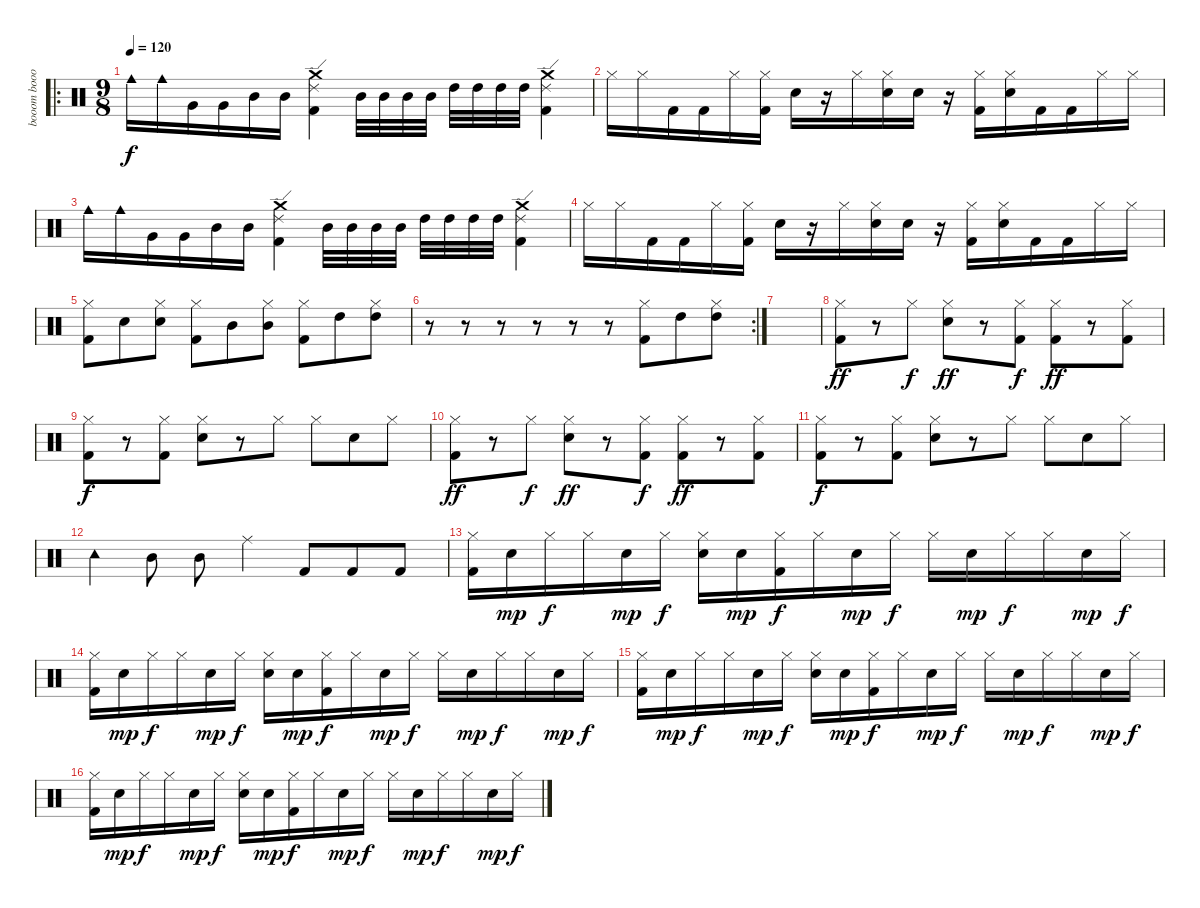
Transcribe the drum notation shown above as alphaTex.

\track ("booom boooom boooom" "booom booo") {instrument percussion}
\staff {score}
\articulation defaults
\ro
\ts (9 8)
\tempo 120
\clef neutral
\ks c "Cowbell medium (hit)".16{dy f} "Cowbell medium (hit)".16 "Very Low Tom (hit)".16 "Very Low Tom (hit)".16 "Mid Tom (hit)".16 "Mid Tom (hit)".16
("Kick (hit) 2" "Ride (edge) 2" "Crash medium (hit)").4 "Mid Tom (hit)".32 "Mid Tom (hit)".32 "Mid Tom (hit)".32 "Mid Tom (hit)".32 "High Tom (hit)".32 "High Tom (hit)".32 "High Tom (hit)".32 "High Tom (hit)".32 ("Kick (hit) 2" "Ride (edge) 2" "Crash medium (hit)").4 |
"Hi-Hat (closed)".16 "Hi-Hat (closed)".16 "Kick (hit) 2".16 "Kick (hit) 2".16 "Hi-Hat (closed)".16 ("Kick (hit) 2" "Hi-Hat (closed)").16 "Snare (hit) 2".16 r.16 "Hi-Hat (closed)".16 ("Snare (hit) 2" "Hi-Hat (closed)").16 "Snare (hit) 2".16 r.16 ("Kick (hit) 2" "Hi-Hat (closed)").16 ("Snare (hit) 2" "Hi-Hat (closed)").16 "Kick (hit) 2".16 "Kick (hit) 2".16 "Hi-Hat (closed)".16 "Hi-Hat (closed)".16 |
"Cowbell medium (hit)".16 "Cowbell medium (hit)".16 "Very Low Tom (hit)".16 "Very Low Tom (hit)".16 "Mid Tom (hit)".16 "Mid Tom (hit)".16 ("Kick (hit) 2" "Ride (edge) 2" "Crash medium (hit)").4 "Mid Tom (hit)".32 "Mid Tom (hit)".32 "Mid Tom (hit)".32 "Mid Tom (hit)".32 "High Tom (hit)".32 "High Tom (hit)".32 "High Tom (hit)".32 "High Tom (hit)".32 ("Kick (hit) 2" "Ride (edge) 2" "Crash medium (hit)").4 |
"Hi-Hat (closed)".16 "Hi-Hat (closed)".16 "Kick (hit) 2".16 "Kick (hit) 2".16 "Hi-Hat (closed)".16 ("Kick (hit) 2" "Hi-Hat (closed)").16 "Snare (hit) 2".16 r.16 "Hi-Hat (closed)".16 ("Snare (hit) 2" "Hi-Hat (closed)").16 "Snare (hit) 2".16 r.16 ("Kick (hit) 2" "Hi-Hat (closed)").16 ("Snare (hit) 2" "Hi-Hat (closed)").16 "Kick (hit) 2".16 "Kick (hit) 2".16 "Hi-Hat (closed)".16 "Hi-Hat (closed)".16 |
("Hi-Hat (closed)" "Kick (hit) 2").8 "Snare (hit) 2".8 ("Hi-Hat (closed)" "Snare (hit) 2").8 ("Hi-Hat (closed)" "Kick (hit) 2").8 "Mid Tom (hit)".8 ("Hi-Hat (closed)" "Mid Tom (hit)").8 ("Hi-Hat (closed)" "Kick (hit) 2").8 "High Tom (hit)".8 ("Hi-Hat (closed)" "High Tom (hit)").8 |
\rc 2
r.8 r.8 r.8 r.8 r.8 r.8 ("Hi-Hat (closed)" "Kick (hit) 2").8 "High Tom (hit)".8 ("Hi-Hat (closed)" "High Tom (hit)").8 |
|
("Kick (hit) 2" "Hi-Hat (closed)").8{dy ff} r.8 "Hi-Hat (closed)".8{dy f} ("Snare (hit) 2" "Hi-Hat (closed)").8{dy ff} r.8 ("Kick (hit) 2" "Hi-Hat (closed)").8{dy f} ("Kick (hit) 2" "Hi-Hat (closed)").8{dy ff} r.8 ("Kick (hit) 2" "Hi-Hat (closed)").8 |
("Kick (hit) 2" "Hi-Hat (closed)").8{dy f} r.8 ("Kick (hit) 2" "Hi-Hat (closed)").8 ("Snare (hit) 2" "Hi-Hat (closed)").8 r.8 "Hi-Hat (closed)".8 "Hi-Hat (closed)".8 "Snare (hit) 2".8 "Hi-Hat (closed)".8 |
("Kick (hit) 2" "Hi-Hat (closed)").8{dy ff} r.8 "Hi-Hat (closed)".8{dy f} ("Snare (hit) 2" "Hi-Hat (closed)").8{dy ff} r.8 ("Kick (hit) 2" "Hi-Hat (closed)").8{dy f} ("Kick (hit) 2" "Hi-Hat (closed)").8{dy ff} r.8 ("Kick (hit) 2" "Hi-Hat (closed)").8 |
("Kick (hit) 2" "Hi-Hat (closed)").8{dy f} r.8 ("Kick (hit) 2" "Hi-Hat (closed)").8 ("Snare (hit) 2" "Hi-Hat (closed)").8 r.8 "Hi-Hat (closed)".8 "Hi-Hat (closed)".8 "Snare (hit) 2".8 "Hi-Hat (closed)".8 |
"Tambourine (hit)".4 "Mid Tom (hit)".8 "Mid Tom (hit)".8 "Ride (middle)".4 "Kick (hit) 2".8 "Kick (hit) 2".8 "Kick (hit) 2".8 |
("Kick (hit) 2" "Hi-Hat (closed)").16 "Snare (hit) 2".16{dy mp} "Hi-Hat (closed)".16{dy f} "Hi-Hat (closed)".16 "Snare (hit) 2".16{dy mp} "Hi-Hat (closed)".16{dy f} ("Snare (hit) 2" "Hi-Hat (closed)").16 "Snare (hit) 2".16{dy mp} ("Kick (hit) 2" "Hi-Hat (closed)").16{dy f} "Hi-Hat (closed)".16 "Snare (hit) 2".16{dy mp} "Hi-Hat (closed)".16{dy f} "Hi-Hat (closed)".16 "Snare (hit) 2".16{dy mp} "Hi-Hat (closed)".16{dy f} "Hi-Hat (closed)".16 "Snare (hit) 2".16{dy mp} "Hi-Hat (closed)".16{dy f} |
("Kick (hit) 2" "Hi-Hat (closed)").16 "Snare (hit) 2".16{dy mp} "Hi-Hat (closed)".16{dy f} "Hi-Hat (closed)".16 "Snare (hit) 2".16{dy mp} "Hi-Hat (closed)".16{dy f} ("Snare (hit) 2" "Hi-Hat (closed)").16 "Snare (hit) 2".16{dy mp} ("Kick (hit) 2" "Hi-Hat (closed)").16{dy f} "Hi-Hat (closed)".16 "Snare (hit) 2".16{dy mp} "Hi-Hat (closed)".16{dy f} "Hi-Hat (closed)".16 "Snare (hit) 2".16{dy mp} "Hi-Hat (closed)".16{dy f} "Hi-Hat (closed)".16 "Snare (hit) 2".16{dy mp} "Hi-Hat (closed)".16{dy f} |
("Kick (hit) 2" "Hi-Hat (closed)").16 "Snare (hit) 2".16{dy mp} "Hi-Hat (closed)".16{dy f} "Hi-Hat (closed)".16 "Snare (hit) 2".16{dy mp} "Hi-Hat (closed)".16{dy f} ("Snare (hit) 2" "Hi-Hat (closed)").16 "Snare (hit) 2".16{dy mp} ("Kick (hit) 2" "Hi-Hat (closed)").16{dy f} "Hi-Hat (closed)".16 "Snare (hit) 2".16{dy mp} "Hi-Hat (closed)".16{dy f} "Hi-Hat (closed)".16 "Snare (hit) 2".16{dy mp} "Hi-Hat (closed)".16{dy f} "Hi-Hat (closed)".16 "Snare (hit) 2".16{dy mp} "Hi-Hat (closed)".16{dy f} |
("Kick (hit) 2" "Hi-Hat (closed)").16 "Snare (hit) 2".16{dy mp} "Hi-Hat (closed)".16{dy f} "Hi-Hat (closed)".16 "Snare (hit) 2".16{dy mp} "Hi-Hat (closed)".16{dy f} ("Snare (hit) 2" "Hi-Hat (closed)").16 "Snare (hit) 2".16{dy mp} ("Kick (hit) 2" "Hi-Hat (closed)").16{dy f} "Hi-Hat (closed)".16 "Snare (hit) 2".16{dy mp} "Hi-Hat (closed)".16{dy f} "Hi-Hat (closed)".16 "Snare (hit) 2".16{dy mp} "Hi-Hat (closed)".16{dy f} "Hi-Hat (closed)".16 "Snare (hit) 2".16{dy mp} "Hi-Hat (closed)".16{dy f}
